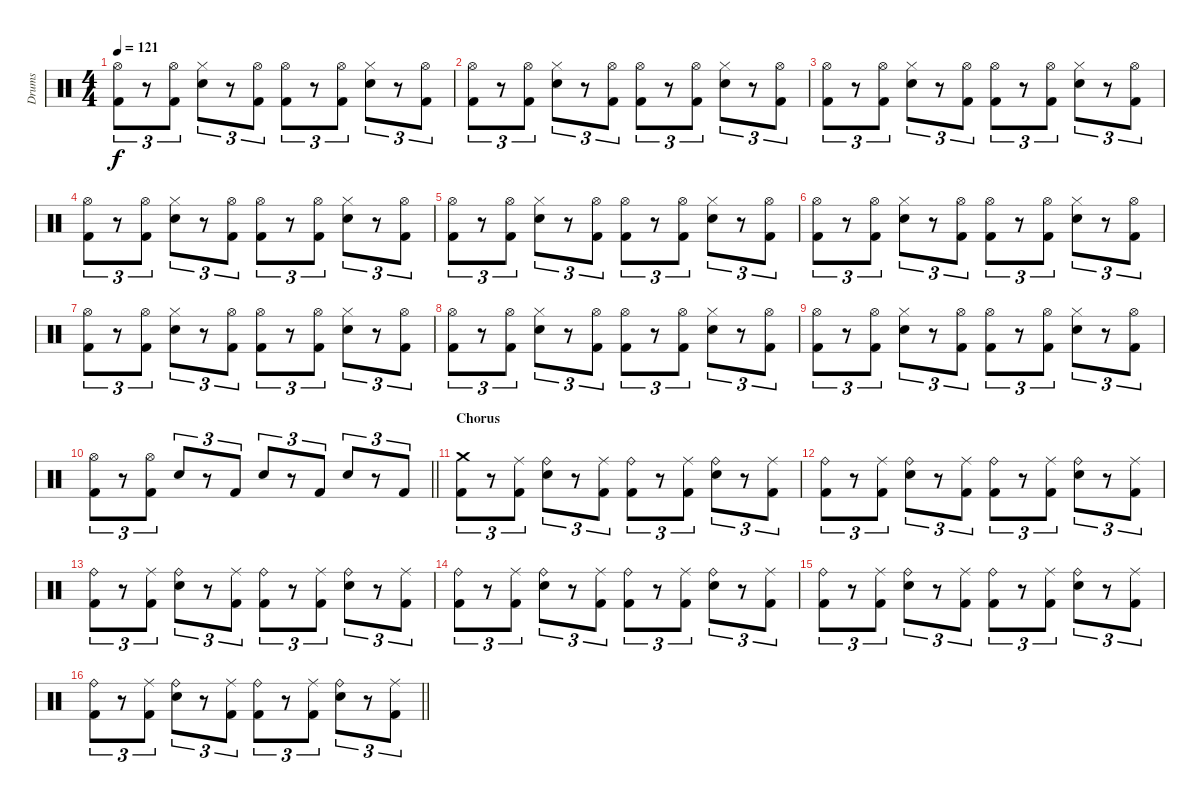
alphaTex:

\track ("Drums" "Drums") {instrument percussion}
\staff {score}
\articulation defaults
\ts (4 4)
\tempo 121
\clef neutral
\ks c
("Hi-Hat (open)" "Kick (hit) 2").8{tu (3 2) dy f} r.8{tu (3 2)} ("Hi-Hat (open)" "Kick (hit) 2").8{tu (3 2)} ("Hi-Hat (closed)" "Snare (hit) 2").8{tu (3 2)} r.8{tu (3 2)} ("Hi-Hat (open)" "Kick (hit) 2").8{tu (3 2)} ("Hi-Hat (open)" "Kick (hit) 2").8{tu (3 2)} r.8{tu (3 2)} ("Hi-Hat (open)" "Kick (hit) 2").8{tu (3 2)} ("Hi-Hat (closed)" "Snare (hit) 2").8{tu (3 2)} r.8{tu (3 2)} ("Hi-Hat (open)" "Kick (hit) 2").8{tu (3 2)} |
("Hi-Hat (open)" "Kick (hit) 2").8{tu (3 2)} r.8{tu (3 2)} ("Hi-Hat (open)" "Kick (hit) 2").8{tu (3 2)} ("Hi-Hat (closed)" "Snare (hit) 2").8{tu (3 2)} r.8{tu (3 2)} ("Hi-Hat (open)" "Kick (hit) 2").8{tu (3 2)} ("Hi-Hat (open)" "Kick (hit) 2").8{tu (3 2)} r.8{tu (3 2)} ("Hi-Hat (open)" "Kick (hit) 2").8{tu (3 2)} ("Hi-Hat (closed)" "Snare (hit) 2").8{tu (3 2)} r.8{tu (3 2)} ("Hi-Hat (open)" "Kick (hit) 2").8{tu (3 2)} |
("Hi-Hat (open)" "Kick (hit) 2").8{tu (3 2)} r.8{tu (3 2)} ("Hi-Hat (open)" "Kick (hit) 2").8{tu (3 2)} ("Hi-Hat (closed)" "Snare (hit) 2").8{tu (3 2)} r.8{tu (3 2)} ("Hi-Hat (open)" "Kick (hit) 2").8{tu (3 2)} ("Hi-Hat (open)" "Kick (hit) 2").8{tu (3 2)} r.8{tu (3 2)} ("Hi-Hat (open)" "Kick (hit) 2").8{tu (3 2)} ("Hi-Hat (closed)" "Snare (hit) 2").8{tu (3 2)} r.8{tu (3 2)} ("Hi-Hat (open)" "Kick (hit) 2").8{tu (3 2)} |
("Hi-Hat (open)" "Kick (hit) 2").8{tu (3 2)} r.8{tu (3 2)} ("Hi-Hat (open)" "Kick (hit) 2").8{tu (3 2)} ("Hi-Hat (closed)" "Snare (hit) 2").8{tu (3 2)} r.8{tu (3 2)} ("Hi-Hat (open)" "Kick (hit) 2").8{tu (3 2)} ("Hi-Hat (open)" "Kick (hit) 2").8{tu (3 2)} r.8{tu (3 2)} ("Hi-Hat (open)" "Kick (hit) 2").8{tu (3 2)} ("Hi-Hat (closed)" "Snare (hit) 2").8{tu (3 2)} r.8{tu (3 2)} ("Hi-Hat (open)" "Kick (hit) 2").8{tu (3 2)} |
("Hi-Hat (open)" "Kick (hit) 2").8{tu (3 2)} r.8{tu (3 2)} ("Hi-Hat (open)" "Kick (hit) 2").8{tu (3 2)} ("Hi-Hat (closed)" "Snare (hit) 2").8{tu (3 2)} r.8{tu (3 2)} ("Hi-Hat (open)" "Kick (hit) 2").8{tu (3 2)} ("Hi-Hat (open)" "Kick (hit) 2").8{tu (3 2)} r.8{tu (3 2)} ("Hi-Hat (open)" "Kick (hit) 2").8{tu (3 2)} ("Hi-Hat (closed)" "Snare (hit) 2").8{tu (3 2)} r.8{tu (3 2)} ("Hi-Hat (open)" "Kick (hit) 2").8{tu (3 2)} |
("Hi-Hat (open)" "Kick (hit) 2").8{tu (3 2)} r.8{tu (3 2)} ("Hi-Hat (open)" "Kick (hit) 2").8{tu (3 2)} ("Hi-Hat (closed)" "Snare (hit) 2").8{tu (3 2)} r.8{tu (3 2)} ("Hi-Hat (open)" "Kick (hit) 2").8{tu (3 2)} ("Hi-Hat (open)" "Kick (hit) 2").8{tu (3 2)} r.8{tu (3 2)} ("Hi-Hat (open)" "Kick (hit) 2").8{tu (3 2)} ("Hi-Hat (closed)" "Snare (hit) 2").8{tu (3 2)} r.8{tu (3 2)} ("Hi-Hat (open)" "Kick (hit) 2").8{tu (3 2)} |
("Hi-Hat (open)" "Kick (hit) 2").8{tu (3 2)} r.8{tu (3 2)} ("Hi-Hat (open)" "Kick (hit) 2").8{tu (3 2)} ("Hi-Hat (closed)" "Snare (hit) 2").8{tu (3 2)} r.8{tu (3 2)} ("Hi-Hat (open)" "Kick (hit) 2").8{tu (3 2)} ("Hi-Hat (open)" "Kick (hit) 2").8{tu (3 2)} r.8{tu (3 2)} ("Hi-Hat (open)" "Kick (hit) 2").8{tu (3 2)} ("Hi-Hat (closed)" "Snare (hit) 2").8{tu (3 2)} r.8{tu (3 2)} ("Hi-Hat (open)" "Kick (hit) 2").8{tu (3 2)} |
("Hi-Hat (open)" "Kick (hit) 2").8{tu (3 2)} r.8{tu (3 2)} ("Hi-Hat (open)" "Kick (hit) 2").8{tu (3 2)} ("Hi-Hat (closed)" "Snare (hit) 2").8{tu (3 2)} r.8{tu (3 2)} ("Hi-Hat (open)" "Kick (hit) 2").8{tu (3 2)} ("Hi-Hat (open)" "Kick (hit) 2").8{tu (3 2)} r.8{tu (3 2)} ("Hi-Hat (open)" "Kick (hit) 2").8{tu (3 2)} ("Hi-Hat (closed)" "Snare (hit) 2").8{tu (3 2)} r.8{tu (3 2)} ("Hi-Hat (open)" "Kick (hit) 2").8{tu (3 2)} |
("Hi-Hat (open)" "Kick (hit) 2").8{tu (3 2)} r.8{tu (3 2)} ("Hi-Hat (open)" "Kick (hit) 2").8{tu (3 2)} ("Hi-Hat (closed)" "Snare (hit) 2").8{tu (3 2)} r.8{tu (3 2)} ("Hi-Hat (open)" "Kick (hit) 2").8{tu (3 2)} ("Hi-Hat (open)" "Kick (hit) 2").8{tu (3 2)} r.8{tu (3 2)} ("Hi-Hat (open)" "Kick (hit) 2").8{tu (3 2)} ("Hi-Hat (closed)" "Snare (hit) 2").8{tu (3 2)} r.8{tu (3 2)} ("Hi-Hat (open)" "Kick (hit) 2").8{tu (3 2)} |
\barLineRight lightlight
("Hi-Hat (open)" "Kick (hit) 2").8{tu (3 2)} r.8{tu (3 2)} ("Hi-Hat (open)" "Kick (hit) 2").8{tu (3 2)} "Snare (hit) 2".8{tu (3 2)} r.8{tu (3 2)} "Kick (hit) 2".8{tu (3 2)} "Snare (hit) 2".8{tu (3 2)} r.8{tu (3 2)} "Kick (hit) 2".8{tu (3 2)} "Snare (hit) 2".8{tu (3 2)} r.8{tu (3 2)} "Kick (hit) 2".8{tu (3 2)} |
\section ("" "Chorus")
("Crash medium (hit)" "Kick (hit) 2").8{tu (3 2)} r.8{tu (3 2)} ("Ride (middle)" "Kick (hit) 2").8{tu (3 2)} ("Ride (bell)" "Snare (hit) 2").8{tu (3 2)} r.8{tu (3 2)} ("Ride (middle)" "Kick (hit) 2").8{tu (3 2)} ("Ride (bell)" "Kick (hit) 2").8{tu (3 2)} r.8{tu (3 2)} ("Ride (middle)" "Kick (hit) 2").8{tu (3 2)} ("Ride (bell)" "Snare (hit) 2").8{tu (3 2)} r.8{tu (3 2)} ("Ride (middle)" "Kick (hit) 2").8{tu (3 2)} |
("Ride (bell)" "Kick (hit) 2").8{tu (3 2)} r.8{tu (3 2)} ("Ride (middle)" "Kick (hit) 2").8{tu (3 2)} ("Ride (bell)" "Snare (hit) 2").8{tu (3 2)} r.8{tu (3 2)} ("Ride (middle)" "Kick (hit) 2").8{tu (3 2)} ("Ride (bell)" "Kick (hit) 2").8{tu (3 2)} r.8{tu (3 2)} ("Ride (middle)" "Kick (hit) 2").8{tu (3 2)} ("Ride (bell)" "Snare (hit) 2").8{tu (3 2)} r.8{tu (3 2)} ("Ride (middle)" "Kick (hit) 2").8{tu (3 2)} |
("Ride (bell)" "Kick (hit) 2").8{tu (3 2)} r.8{tu (3 2)} ("Ride (middle)" "Kick (hit) 2").8{tu (3 2)} ("Ride (bell)" "Snare (hit) 2").8{tu (3 2)} r.8{tu (3 2)} ("Ride (middle)" "Kick (hit) 2").8{tu (3 2)} ("Ride (bell)" "Kick (hit) 2").8{tu (3 2)} r.8{tu (3 2)} ("Ride (middle)" "Kick (hit) 2").8{tu (3 2)} ("Ride (bell)" "Snare (hit) 2").8{tu (3 2)} r.8{tu (3 2)} ("Ride (middle)" "Kick (hit) 2").8{tu (3 2)} |
("Ride (bell)" "Kick (hit) 2").8{tu (3 2)} r.8{tu (3 2)} ("Ride (middle)" "Kick (hit) 2").8{tu (3 2)} ("Ride (bell)" "Snare (hit) 2").8{tu (3 2)} r.8{tu (3 2)} ("Ride (middle)" "Kick (hit) 2").8{tu (3 2)} ("Ride (bell)" "Kick (hit) 2").8{tu (3 2)} r.8{tu (3 2)} ("Ride (middle)" "Kick (hit) 2").8{tu (3 2)} ("Ride (bell)" "Snare (hit) 2").8{tu (3 2)} r.8{tu (3 2)} ("Ride (middle)" "Kick (hit) 2").8{tu (3 2)} |
("Ride (bell)" "Kick (hit) 2").8{tu (3 2)} r.8{tu (3 2)} ("Ride (middle)" "Kick (hit) 2").8{tu (3 2)} ("Ride (bell)" "Snare (hit) 2").8{tu (3 2)} r.8{tu (3 2)} ("Ride (middle)" "Kick (hit) 2").8{tu (3 2)} ("Ride (bell)" "Kick (hit) 2").8{tu (3 2)} r.8{tu (3 2)} ("Ride (middle)" "Kick (hit) 2").8{tu (3 2)} ("Ride (bell)" "Snare (hit) 2").8{tu (3 2)} r.8{tu (3 2)} ("Ride (middle)" "Kick (hit) 2").8{tu (3 2)} |
\barLineRight lightlight
("Ride (bell)" "Kick (hit) 2").8{tu (3 2)} r.8{tu (3 2)} ("Ride (middle)" "Kick (hit) 2").8{tu (3 2)} ("Ride (bell)" "Snare (hit) 2").8{tu (3 2)} r.8{tu (3 2)} ("Ride (middle)" "Kick (hit) 2").8{tu (3 2)} ("Ride (bell)" "Kick (hit) 2").8{tu (3 2)} r.8{tu (3 2)} ("Ride (middle)" "Kick (hit) 2").8{tu (3 2)} ("Ride (bell)" "Snare (hit) 2").8{tu (3 2)} r.8{tu (3 2)} ("Ride (middle)" "Kick (hit) 2").8{tu (3 2)}
